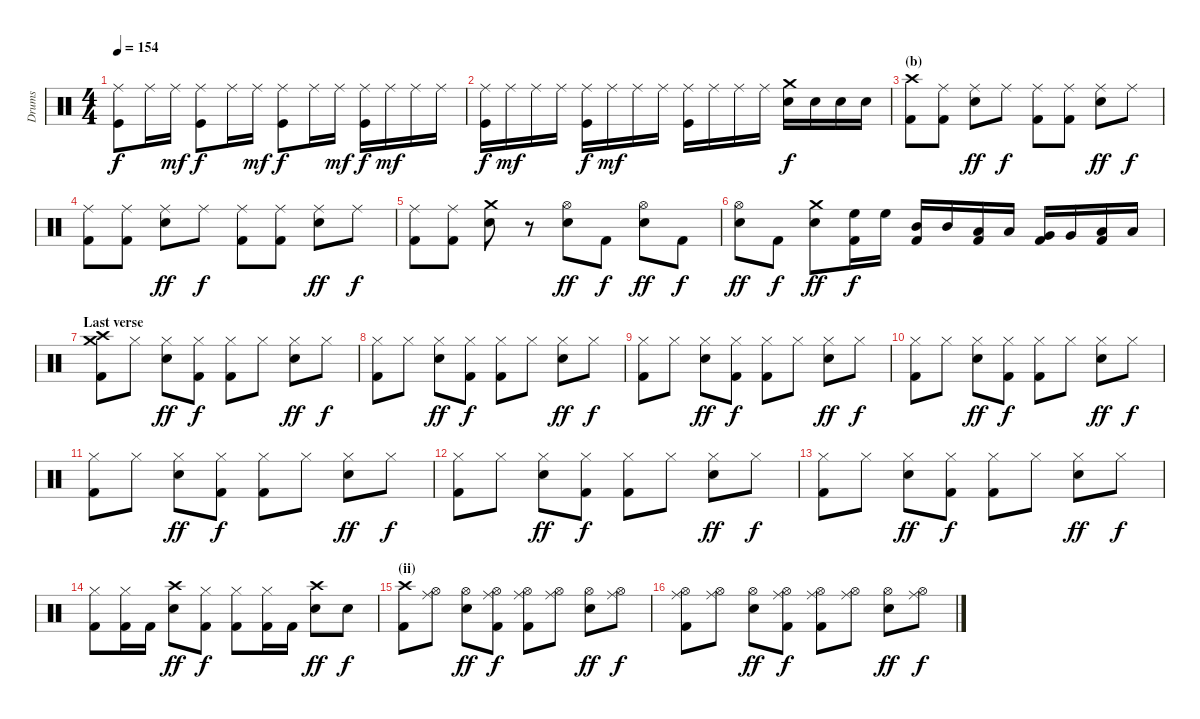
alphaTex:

\track ("Drums" "Drums") {instrument percussion}
\staff {score}
\articulation defaults
\ts (4 4)
\tempo 154
\clef neutral
\ks c
("Ride (middle)" "Kick (hit)").8{dy f} "Ride (middle)".16 "Ride (middle)".16{dy mf} ("Ride (middle)" "Kick (hit)").8{dy f} "Ride (middle)".16 "Ride (middle)".16{dy mf} ("Ride (middle)" "Kick (hit)").8{dy f} "Ride (middle)".16 "Ride (middle)".16{dy mf} ("Ride (middle)" "Kick (hit)").16{dy f} "Ride (middle)".16{dy mf} "Ride (middle)".16 "Ride (middle)".16 |
("Ride (middle)" "Kick (hit)").16{dy f} "Ride (middle)".16{dy mf} "Ride (middle)".16 "Ride (middle)".16 ("Ride (middle)" "Kick (hit)").16{dy f} "Ride (middle)".16{dy mf} "Ride (middle)".16 "Ride (middle)".16 ("Ride (middle)" "Kick (hit)").16 "Ride (middle)".16 "Ride (middle)".16 "Ride (middle)".16 ("Crash medium (hit)" "Electric Snare (hit)").16{dy f} "Electric Snare (hit)".16 "Electric Snare (hit)".16 "Electric Snare (hit)".16 |
\section ("" "(b)")
("Crash high (hit)" "Kick (hit) 2").8 ("Ride (middle)" "Kick (hit) 2").8 ("Ride (middle)" "Electric Snare (hit)").8{dy ff} "Ride (middle)".8{dy f} ("Ride (middle)" "Kick (hit) 2").8 ("Ride (middle)" "Kick (hit) 2").8 ("Ride (middle)" "Electric Snare (hit)").8{dy ff} "Ride (middle)".8{dy f} |
("Ride (middle)" "Kick (hit) 2").8 ("Ride (middle)" "Kick (hit) 2").8 ("Ride (middle)" "Electric Snare (hit)").8{dy ff} "Ride (middle)".8{dy f} ("Ride (middle)" "Kick (hit) 2").8 ("Ride (middle)" "Kick (hit) 2").8 ("Ride (middle)" "Electric Snare (hit)").8{dy ff} "Ride (middle)".8{dy f} |
("Ride (middle)" "Kick (hit) 2").8 ("Ride (middle)" "Kick (hit) 2").8 ("Crash medium (hit)" "Electric Snare (hit)").8 r.8 ("Hi-Hat (open)" "Electric Snare (hit)").8{dy ff} "Kick (hit) 2".8{dy f} ("Hi-Hat (open)" "Electric Snare (hit)").8{dy ff} "Kick (hit) 2".8{dy f} |
("Hi-Hat (open)" "Electric Snare (hit)").8{dy ff} "Kick (hit) 2".8{dy f} ("Crash medium (hit)" "Electric Snare (hit)").8{dy ff} ("High Floor Tom (hit)" "Kick (hit) 2").16{dy f} "High Floor Tom (hit)".16 ("Mid Tom (hit)" "Kick (hit) 2").16 "Mid Tom (hit)".16 ("Low Tom (hit)" "Kick (hit) 2").16 "Low Tom (hit)".16 ("Very Low Tom (hit)" "Kick (hit) 2").16 "Very Low Tom (hit)".16 ("Low Floor Tom (hit)" "Kick (hit) 2").16 "Low Floor Tom (hit)".16 |
\section ("" "Last verse")
("Crash high (hit)" "Crash medium (hit)" "Kick (hit) 2").8 "Hi-Hat (closed)".8 ("Hi-Hat (closed)" "Electric Snare (hit)").8{dy ff} ("Hi-Hat (closed)" "Kick (hit) 2").8{dy f} ("Hi-Hat (closed)" "Kick (hit) 2").8 "Hi-Hat (closed)".8 ("Hi-Hat (closed)" "Electric Snare (hit)").8{dy ff} "Hi-Hat (closed)".8{dy f} |
("Hi-Hat (closed)" "Kick (hit) 2").8 "Hi-Hat (closed)".8 ("Hi-Hat (closed)" "Electric Snare (hit)").8{dy ff} ("Hi-Hat (closed)" "Kick (hit) 2").8{dy f} ("Hi-Hat (closed)" "Kick (hit) 2").8 "Hi-Hat (closed)".8 ("Hi-Hat (closed)" "Electric Snare (hit)").8{dy ff} "Hi-Hat (closed)".8{dy f} |
("Hi-Hat (closed)" "Kick (hit) 2").8 "Hi-Hat (closed)".8 ("Hi-Hat (closed)" "Electric Snare (hit)").8{dy ff} ("Hi-Hat (closed)" "Kick (hit) 2").8{dy f} ("Hi-Hat (closed)" "Kick (hit) 2").8 "Hi-Hat (closed)".8 ("Hi-Hat (closed)" "Electric Snare (hit)").8{dy ff} "Hi-Hat (closed)".8{dy f} |
("Hi-Hat (closed)" "Kick (hit) 2").8 "Hi-Hat (closed)".8 ("Hi-Hat (closed)" "Electric Snare (hit)").8{dy ff} ("Hi-Hat (closed)" "Kick (hit) 2").8{dy f} ("Hi-Hat (closed)" "Kick (hit) 2").8 "Hi-Hat (closed)".8 ("Hi-Hat (closed)" "Electric Snare (hit)").8{dy ff} "Hi-Hat (closed)".8{dy f} |
("Hi-Hat (closed)" "Kick (hit) 2").8 "Hi-Hat (closed)".8 ("Hi-Hat (closed)" "Electric Snare (hit)").8{dy ff} ("Hi-Hat (closed)" "Kick (hit) 2").8{dy f} ("Hi-Hat (closed)" "Kick (hit) 2").8 "Hi-Hat (closed)".8 ("Hi-Hat (closed)" "Electric Snare (hit)").8{dy ff} "Hi-Hat (closed)".8{dy f} |
("Hi-Hat (closed)" "Kick (hit) 2").8 "Hi-Hat (closed)".8 ("Hi-Hat (closed)" "Electric Snare (hit)").8{dy ff} ("Hi-Hat (closed)" "Kick (hit) 2").8{dy f} ("Hi-Hat (closed)" "Kick (hit) 2").8 "Hi-Hat (closed)".8 ("Hi-Hat (closed)" "Electric Snare (hit)").8{dy ff} "Hi-Hat (closed)".8{dy f} |
("Hi-Hat (closed)" "Kick (hit) 2").8 "Hi-Hat (closed)".8 ("Hi-Hat (closed)" "Electric Snare (hit)").8{dy ff} ("Hi-Hat (closed)" "Kick (hit) 2").8{dy f} ("Hi-Hat (closed)" "Kick (hit) 2").8 "Hi-Hat (closed)".8 ("Hi-Hat (closed)" "Electric Snare (hit)").8{dy ff} "Hi-Hat (closed)".8{dy f} |
("Hi-Hat (closed)" "Kick (hit) 2").8 ("Hi-Hat (closed)" "Kick (hit) 2").16 "Kick (hit) 2".16 ("Crash high (hit)" "Electric Snare (hit)").8{dy ff} ("Hi-Hat (closed)" "Kick (hit) 2").8{dy f} ("Hi-Hat (closed)" "Kick (hit) 2").8 ("Hi-Hat (closed)" "Kick (hit) 2").16 "Kick (hit) 2".16 ("Crash high (hit)" "Electric Snare (hit)").8{dy ff} "Electric Snare (hit)".8{dy f} |
\section ("" "(ii)")
("Crash high (hit)" "Kick (hit) 2").8 ("Hi-Hat (open)" "Ride (middle)").8 ("Hi-Hat (open)" "Electric Snare (hit)").8{dy ff} ("Hi-Hat (open)" "Ride (middle)" "Kick (hit) 2").8{dy f} ("Hi-Hat (open)" "Ride (middle)" "Kick (hit) 2").8 ("Hi-Hat (open)" "Ride (middle)").8 ("Hi-Hat (open)" "Electric Snare (hit)").8{dy ff} ("Hi-Hat (open)" "Ride (middle)").8{dy f} |
("Hi-Hat (open)" "Ride (middle)" "Kick (hit) 2").8 ("Hi-Hat (open)" "Ride (middle)").8 ("Hi-Hat (open)" "Electric Snare (hit)").8{dy ff} ("Hi-Hat (open)" "Ride (middle)" "Kick (hit) 2").8{dy f} ("Hi-Hat (open)" "Ride (middle)" "Kick (hit) 2").8 ("Hi-Hat (open)" "Ride (middle)").8 ("Hi-Hat (open)" "Electric Snare (hit)").8{dy ff} ("Hi-Hat (open)" "Ride (middle)").8{dy f}
